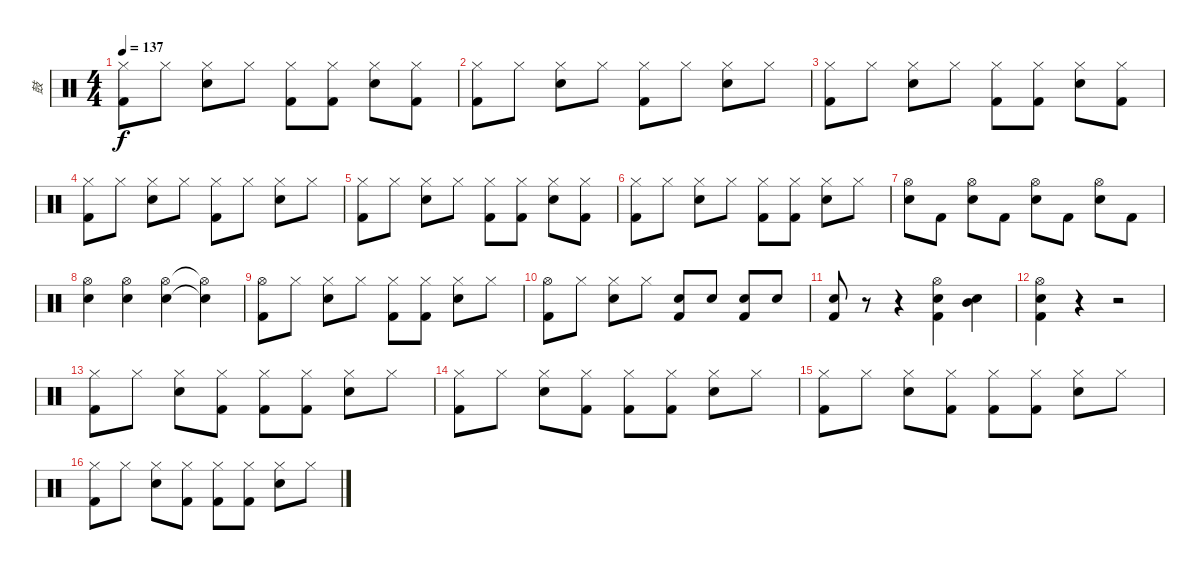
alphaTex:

\track ("鼓" "鼓") {instrument percussion}
\staff {score}
\articulation defaults
\ts (4 4)
\tempo 137
\clef neutral
\ks c
("Hi-Hat (closed)" "Kick (hit) 2").8{dy f} "Hi-Hat (closed)".8 ("Hi-Hat (closed)" "Snare (hit) 2").8 "Hi-Hat (closed)".8 ("Hi-Hat (closed)" "Kick (hit) 2").8 ("Hi-Hat (closed)" "Kick (hit) 2").8 ("Hi-Hat (closed)" "Snare (hit) 2").8 ("Hi-Hat (closed)" "Kick (hit) 2").8 |
("Hi-Hat (closed)" "Kick (hit) 2").8 "Hi-Hat (closed)".8 ("Hi-Hat (closed)" "Snare (hit) 2").8 "Hi-Hat (closed)".8 ("Hi-Hat (closed)" "Kick (hit) 2").8 "Hi-Hat (closed)".8 ("Hi-Hat (closed)" "Snare (hit) 2").8 "Hi-Hat (closed)".8 |
("Hi-Hat (closed)" "Kick (hit) 2").8 "Hi-Hat (closed)".8 ("Hi-Hat (closed)" "Snare (hit) 2").8 "Hi-Hat (closed)".8 ("Hi-Hat (closed)" "Kick (hit) 2").8 ("Hi-Hat (closed)" "Kick (hit) 2").8 ("Hi-Hat (closed)" "Snare (hit) 2").8 ("Hi-Hat (closed)" "Kick (hit) 2").8 |
("Hi-Hat (closed)" "Kick (hit) 2").8 "Hi-Hat (closed)".8 ("Hi-Hat (closed)" "Snare (hit) 2").8 "Hi-Hat (closed)".8 ("Hi-Hat (closed)" "Kick (hit) 2").8 "Hi-Hat (closed)".8 ("Hi-Hat (closed)" "Snare (hit) 2").8 "Hi-Hat (closed)".8 |
("Hi-Hat (closed)" "Kick (hit) 2").8 "Hi-Hat (closed)".8 ("Hi-Hat (closed)" "Snare (hit) 2").8 "Hi-Hat (closed)".8 ("Hi-Hat (closed)" "Kick (hit) 2").8 ("Hi-Hat (closed)" "Kick (hit) 2").8 ("Hi-Hat (closed)" "Snare (hit) 2").8 ("Hi-Hat (closed)" "Kick (hit) 2").8 |
("Hi-Hat (closed)" "Kick (hit) 2").8 "Hi-Hat (closed)".8 ("Hi-Hat (closed)" "Snare (hit) 2").8 "Hi-Hat (closed)".8 ("Hi-Hat (closed)" "Kick (hit) 2").8 ("Hi-Hat (closed)" "Kick (hit) 2").8 ("Hi-Hat (closed)" "Snare (hit) 2").8 "Hi-Hat (closed)".8 |
("Hi-Hat (open)" "Snare (hit) 2").8 "Kick (hit) 2".8 ("Hi-Hat (open)" "Snare (hit) 2").8 "Kick (hit) 2".8 ("Hi-Hat (open)" "Snare (hit) 2").8 "Kick (hit) 2".8 ("Hi-Hat (open)" "Snare (hit) 2").8 "Kick (hit) 2".8 |
("Hi-Hat (open)" "Snare (hit) 2").4 ("Hi-Hat (open)" "Snare (hit) 2").4 ("Hi-Hat (open)" "Snare (hit) 2").4 ("Hi-Hat (open)"{t} "Snare (hit) 2"{t}).4 |
("Hi-Hat (open)" "Kick (hit) 2").8 "Hi-Hat (closed)".8 ("Hi-Hat (closed)" "Snare (hit) 2").8 "Hi-Hat (closed)".8 ("Hi-Hat (closed)" "Kick (hit) 2").8 ("Hi-Hat (closed)" "Kick (hit) 2").8 ("Hi-Hat (closed)" "Snare (hit) 2").8 "Hi-Hat (closed)".8 |
("Hi-Hat (open)" "Kick (hit) 2").8 "Hi-Hat (closed)".8 ("Hi-Hat (closed)" "Snare (hit) 2").8 "Hi-Hat (closed)".8 ("Snare (hit) 2" "Kick (hit) 2").8 "Snare (hit) 2".8 ("Snare (hit) 2" "Kick (hit) 2").8 "Snare (hit) 2".8 |
("Snare (hit) 2" "Kick (hit) 2").8 r.8 r.4 ("Hi-Hat (open)" "Snare (hit) 2" "Kick (hit) 2").4 ("Mid Tom (hit)" "Snare (hit) 2").4 |
("Hi-Hat (open)" "Snare (hit) 2" "Kick (hit) 2").4 r.4 r.2 |
("Hi-Hat (closed)" "Kick (hit) 2").8 "Hi-Hat (closed)".8 ("Hi-Hat (closed)" "Snare (hit) 2").8 ("Hi-Hat (closed)" "Kick (hit) 2").8 ("Hi-Hat (closed)" "Kick (hit) 2").8 ("Hi-Hat (closed)" "Kick (hit) 2").8 ("Hi-Hat (closed)" "Snare (hit) 2").8 "Hi-Hat (closed)".8 |
("Hi-Hat (closed)" "Kick (hit) 2").8 "Hi-Hat (closed)".8 ("Hi-Hat (closed)" "Snare (hit) 2").8 ("Hi-Hat (closed)" "Kick (hit) 2").8 ("Hi-Hat (closed)" "Kick (hit) 2").8 ("Hi-Hat (closed)" "Kick (hit) 2").8 ("Hi-Hat (closed)" "Snare (hit) 2").8 "Hi-Hat (closed)".8 |
("Hi-Hat (closed)" "Kick (hit) 2").8 "Hi-Hat (closed)".8 ("Hi-Hat (closed)" "Snare (hit) 2").8 ("Hi-Hat (closed)" "Kick (hit) 2").8 ("Hi-Hat (closed)" "Kick (hit) 2").8 ("Hi-Hat (closed)" "Kick (hit) 2").8 ("Hi-Hat (closed)" "Snare (hit) 2").8 "Hi-Hat (closed)".8 |
("Hi-Hat (closed)" "Kick (hit) 2").8 "Hi-Hat (closed)".8 ("Hi-Hat (closed)" "Snare (hit) 2").8 ("Hi-Hat (closed)" "Kick (hit) 2").8 ("Hi-Hat (closed)" "Kick (hit) 2").8 ("Hi-Hat (closed)" "Kick (hit) 2").8 ("Hi-Hat (closed)" "Snare (hit) 2").8 "Hi-Hat (closed)".8
